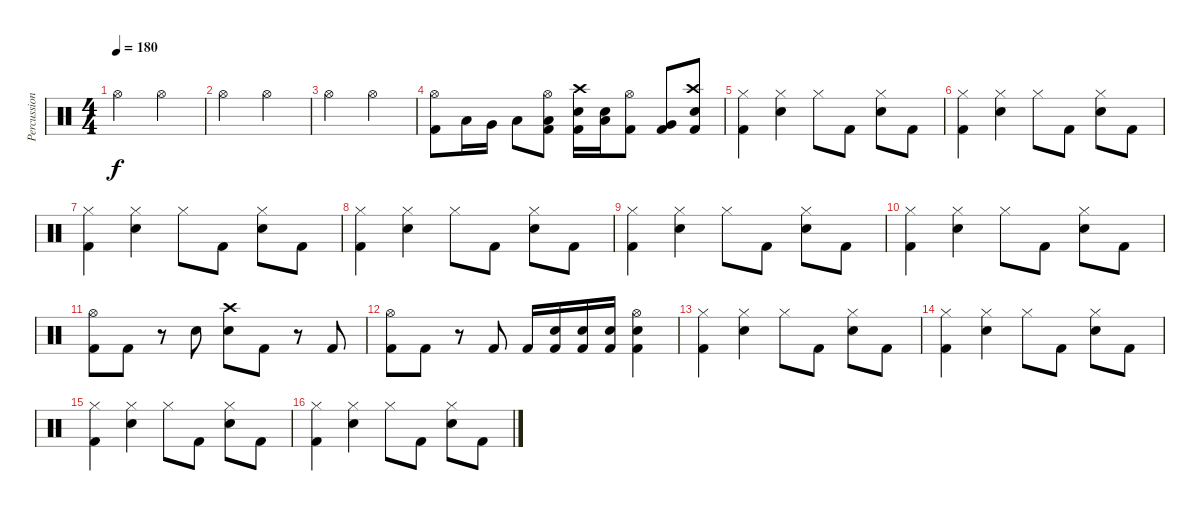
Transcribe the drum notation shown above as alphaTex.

\track ("Percussion" "Percussion") {instrument percussion}
\staff {score}
\articulation defaults
\ts (4 4)
\tempo 180
\clef neutral
\ks c "Hi-Hat (open)".2{dy f} "Hi-Hat (open)".2
|
"Hi-Hat (open)".2 "Hi-Hat (open)".2 |
"Hi-Hat (open)".2 "Hi-Hat (open)".2 |
("Hi-Hat (open)" "Kick (hit) 2").8 "Low Tom (hit)".16 "Very Low Tom (hit)".16 "Low Floor Tom (hit)".8 ("Hi-Hat (open)" "Low Floor Tom (hit)" "Kick (hit) 2").8 ("Crash high (hit)" "Snare (hit) 2" "Kick (hit) 2").16 ("Low Tom (hit)" "Snare (hit) 2").16 ("Hi-Hat (open)" "Kick (hit) 2").8 ("Very Low Tom (hit)" "Kick (hit) 2").8 ("Snare (hit) 2" "Crash high (hit)" "Kick (hit) 2").8 |
("Hi-Hat (closed)" "Kick (hit) 2").4 ("Hi-Hat (closed)" "Snare (hit) 2").4 "Hi-Hat (closed)".8 "Kick (hit) 2".8 ("Hi-Hat (closed)" "Snare (hit) 2").8 "Kick (hit) 2".8 |
("Hi-Hat (closed)" "Kick (hit) 2").4 ("Hi-Hat (closed)" "Snare (hit) 2").4 "Hi-Hat (closed)".8 "Kick (hit) 2".8 ("Hi-Hat (closed)" "Snare (hit) 2").8 "Kick (hit) 2".8 |
("Hi-Hat (closed)" "Kick (hit) 2").4 ("Hi-Hat (closed)" "Snare (hit) 2").4 "Hi-Hat (closed)".8 "Kick (hit) 2".8 ("Hi-Hat (closed)" "Snare (hit) 2").8 "Kick (hit) 2".8 |
("Hi-Hat (closed)" "Kick (hit) 2").4 ("Hi-Hat (closed)" "Snare (hit) 2").4 "Hi-Hat (closed)".8 "Kick (hit) 2".8 ("Hi-Hat (closed)" "Snare (hit) 2").8 "Kick (hit) 2".8 |
("Hi-Hat (closed)" "Kick (hit) 2").4 ("Hi-Hat (closed)" "Snare (hit) 2").4 "Hi-Hat (closed)".8 "Kick (hit) 2".8 ("Hi-Hat (closed)" "Snare (hit) 2").8 "Kick (hit) 2".8 |
("Hi-Hat (closed)" "Kick (hit) 2").4 ("Hi-Hat (closed)" "Snare (hit) 2").4 "Hi-Hat (closed)".8 "Kick (hit) 2".8 ("Hi-Hat (closed)" "Snare (hit) 2").8 "Kick (hit) 2".8 |
("Hi-Hat (open)" "Kick (hit) 2").8 "Kick (hit) 2".8 r.8 "Snare (hit) 2".8 ("Crash high (hit)" "Snare (hit) 2").8 "Kick (hit) 2".8 r.8 "Kick (hit) 2".8 |
("Hi-Hat (open)" "Kick (hit) 2").8 "Kick (hit) 2".8 r.8 "Kick (hit) 2".8 "Kick (hit) 2".16 ("Snare (hit) 2" "Kick (hit) 2").16 ("Snare (hit) 2" "Kick (hit) 2").16 ("Snare (hit) 2" "Kick (hit) 2").16 ("Hi-Hat (open)" "Snare (hit) 2" "Kick (hit) 2").4 |
("Hi-Hat (closed)" "Kick (hit) 2").4 ("Hi-Hat (closed)" "Snare (hit) 2").4 "Hi-Hat (closed)".8 "Kick (hit) 2".8 ("Hi-Hat (closed)" "Snare (hit) 2").8 "Kick (hit) 2".8 |
("Hi-Hat (closed)" "Kick (hit) 2").4 ("Hi-Hat (closed)" "Snare (hit) 2").4 "Hi-Hat (closed)".8 "Kick (hit) 2".8 ("Hi-Hat (closed)" "Snare (hit) 2").8 "Kick (hit) 2".8 |
("Hi-Hat (closed)" "Kick (hit) 2").4 ("Hi-Hat (closed)" "Snare (hit) 2").4 "Hi-Hat (closed)".8 "Kick (hit) 2".8 ("Hi-Hat (closed)" "Snare (hit) 2").8 "Kick (hit) 2".8 |
("Hi-Hat (closed)" "Kick (hit) 2").4 ("Hi-Hat (closed)" "Snare (hit) 2").4 "Hi-Hat (closed)".8 "Kick (hit) 2".8 ("Hi-Hat (closed)" "Snare (hit) 2").8 "Kick (hit) 2".8
